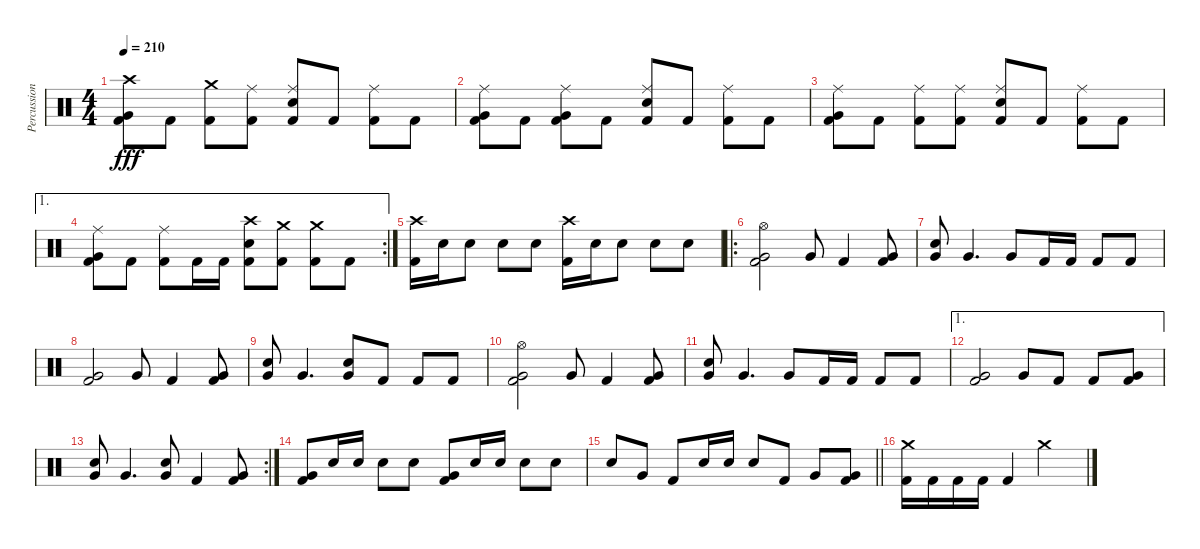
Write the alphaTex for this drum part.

\track ("Percussion" "Percussion") {instrument percussion}
\staff
\articulation defaults
\ts (4 4)
\tempo 210
\clef neutral
\ks c
("Crash high (hit)" "Very Low Tom (hit)" "Kick (hit) 2").8{dy fff} "Kick (hit) 2".8 ("Crash medium (hit)" "Kick (hit) 2").8 ("Ride (middle)" "Kick (hit) 2").8 ("Ride (middle)" "Electric Snare (hit)" "Kick (hit) 2").8 "Kick (hit) 2".8 ("Ride (middle)" "Kick (hit) 2").8 "Kick (hit) 2".8 |
("Ride (middle)" "Very Low Tom (hit)" "Kick (hit) 2").8 "Kick (hit) 2".8 ("Ride (middle)" "Very Low Tom (hit)" "Kick (hit) 2").8 "Kick (hit) 2".8 ("Ride (middle)" "Electric Snare (hit)" "Kick (hit) 2").8 "Kick (hit) 2".8 ("Ride (middle)" "Kick (hit) 2").8 "Kick (hit) 2".8 |
("Ride (middle)" "Very Low Tom (hit)" "Kick (hit) 2").8 "Kick (hit) 2".8 ("Ride (middle)" "Kick (hit) 2").8 ("Ride (middle)" "Kick (hit) 2").8 ("Ride (middle)" "Electric Snare (hit)" "Kick (hit) 2").8 "Kick (hit) 2".8 ("Ride (middle)" "Kick (hit) 2").8 "Kick (hit) 2".8 |
\ae 1
\rc 2
("Ride (middle)" "Very Low Tom (hit)" "Kick (hit) 2").8 "Kick (hit) 2".8 ("Ride (middle)" "Kick (hit) 2").8 "Kick (hit) 2".16 "Kick (hit) 2".16 ("Crash high (hit)" "Electric Snare (hit)" "Kick (hit) 2").8 ("Crash medium (hit)" "Kick (hit) 2").8 ("Crash medium (hit)" "Kick (hit) 2").8 "Kick (hit) 2".8 |
("Crash high (hit)" "Kick (hit) 2").16 "Electric Snare (hit)".16 "Electric Snare (hit)".8 "Electric Snare (hit)".8 "Electric Snare (hit)".8 ("Crash high (hit)" "Kick (hit) 2").16 "Electric Snare (hit)".16 "Electric Snare (hit)".8 "Electric Snare (hit)".8 "Electric Snare (hit)".8 |
\ro
("Hi-Hat (open)" "Very Low Tom (hit)" "Kick (hit) 2").2 "Very Low Tom (hit)".8 "Kick (hit) 2".4 ("Very Low Tom (hit)" "Kick (hit) 2").8 |
("Electric Snare (hit)" "Very Low Tom (hit)").8 "Very Low Tom (hit)".4{d} "Very Low Tom (hit)".8 "Kick (hit) 2".16 "Kick (hit) 2".16 "Kick (hit) 2".8 "Kick (hit) 2".8 |
("Very Low Tom (hit)" "Kick (hit) 2").2 "Very Low Tom (hit)".8 "Kick (hit) 2".4 ("Very Low Tom (hit)" "Kick (hit) 2").8 |
("Electric Snare (hit)" "Very Low Tom (hit)").8 "Very Low Tom (hit)".4{d} ("Electric Snare (hit)" "Very Low Tom (hit)").8 "Kick (hit) 2".8 "Kick (hit) 2".8 "Kick (hit) 2".8 |
("Hi-Hat (open)" "Very Low Tom (hit)" "Kick (hit) 2").2 "Very Low Tom (hit)".8 "Kick (hit) 2".4 ("Very Low Tom (hit)" "Kick (hit) 2").8 |
("Electric Snare (hit)" "Very Low Tom (hit)").8 "Very Low Tom (hit)".4{d} "Very Low Tom (hit)".8 "Kick (hit) 2".16 "Kick (hit) 2".16 "Kick (hit) 2".8 "Kick (hit) 2".8 |
\ae 1
("Very Low Tom (hit)" "Kick (hit) 2").2 "Very Low Tom (hit)".8 "Kick (hit) 2".8 "Kick (hit) 2".8 ("Very Low Tom (hit)" "Kick (hit) 2").8 |
\rc 2
("Electric Snare (hit)" "Very Low Tom (hit)").8 "Very Low Tom (hit)".4{d} ("Electric Snare (hit)" "Very Low Tom (hit)").8 "Kick (hit) 2".4 ("Very Low Tom (hit)" "Kick (hit) 2").8 |
("Very Low Tom (hit)" "Kick (hit) 2").8 "Electric Snare (hit)".16 "Electric Snare (hit)".16 "Electric Snare (hit)".8 "Electric Snare (hit)".8 ("Very Low Tom (hit)" "Kick (hit) 2").8 "Electric Snare (hit)".16 "Electric Snare (hit)".16 "Electric Snare (hit)".8 "Electric Snare (hit)".8 |
\barLineRight lightlight "Electric Snare (hit)".8 "Very Low Tom (hit)".8 "Kick (hit) 2".8 "Electric Snare (hit)".16 "Electric Snare (hit)".16 "Electric Snare (hit)".8 "Kick (hit) 2".8 "Very Low Tom (hit)".8
("Very Low Tom (hit)" "Kick (hit) 2").8 |
("Crash medium (hit)" "Kick (hit) 2").16 "Kick (hit) 2".16 "Kick (hit) 2".16 "Kick (hit) 2".16 "Kick (hit) 2".4 "Crash medium (hit)".2
